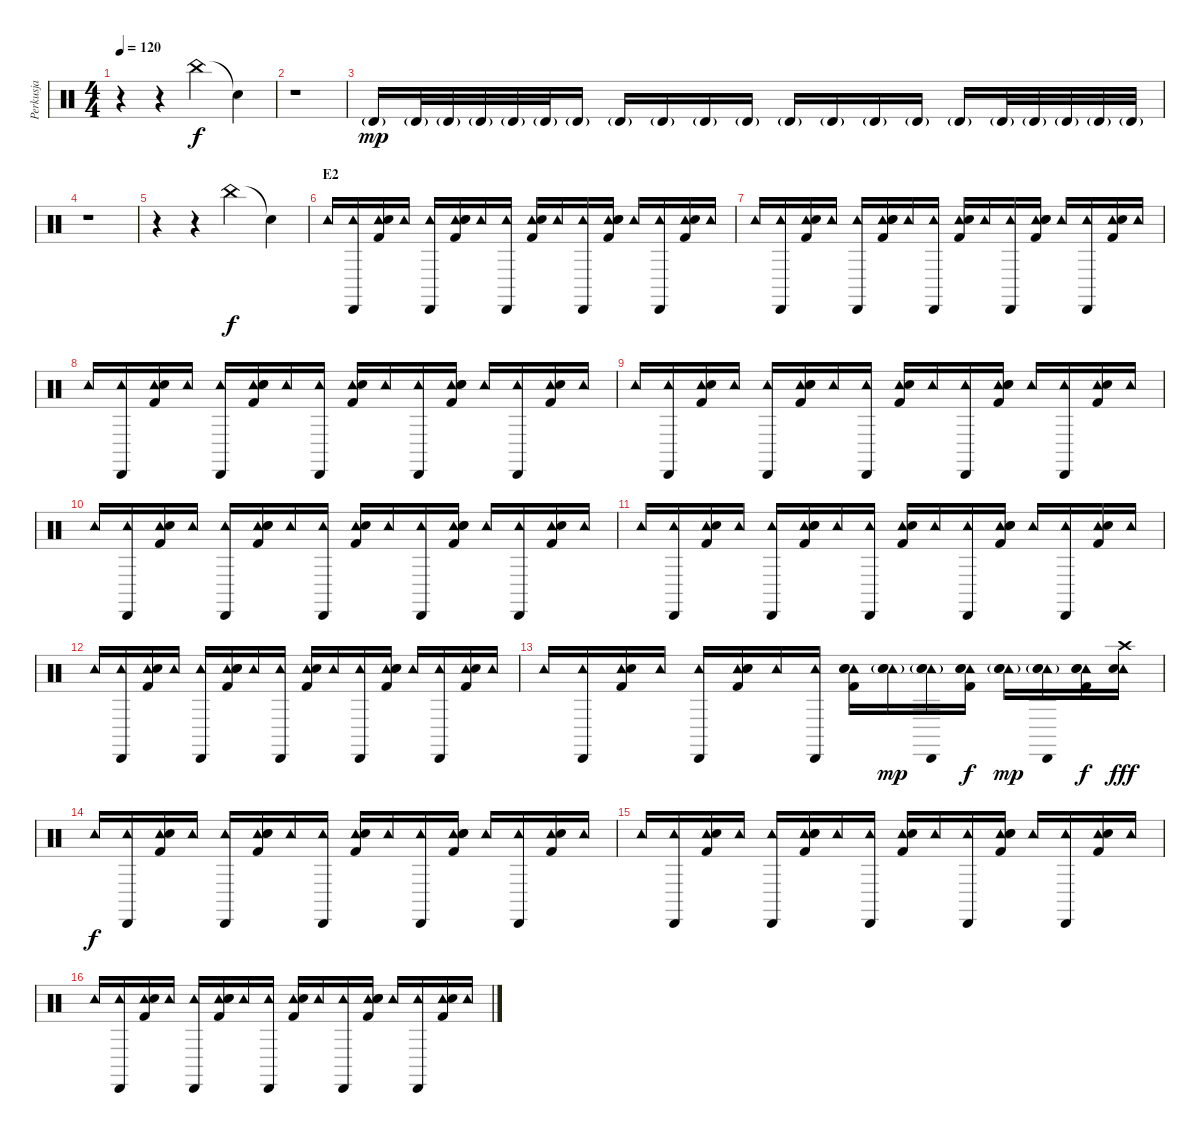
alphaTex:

\track ("Perkusja" "Perkusja") {instrument percussion}
\staff {score}
\articulation defaults
\ts (4 4)
\tempo 120
\clef neutral
\ks c
r.4{dy f} r.4 "China (hit)".4 "Snare (hit)"{t}.4 |
r.1 |
"Timbale high (hit)"{g}.16{dy mp} "Timbale high (hit)"{g}.32 "Timbale high (hit)"{g}.32 "Timbale high (hit)"{g}.32 "Timbale high (hit)"{g}.32 "Timbale high (hit)"{g}.32 "Timbale high (hit)"{g}.16 "Timbale high (hit)"{g}.16 "Timbale high (hit)"{g}.16 "Timbale high (hit)"{g}.16 "Timbale high (hit)"{g}.16 "Timbale high (hit)"{g}.16 "Timbale high (hit)"{g}.16 "Timbale high (hit)"{g}.16 "Timbale high (hit)"{g}.16 "Timbale high (hit)"{g}.16 "Timbale high (hit)"{g}.32 "Timbale high (hit)"{g}.32 "Timbale high (hit)"{g}.32 "Timbale high (hit)"{g}.32 "Timbale high (hit)"{g}.32 |
r.1 |
r.4 r.4 "China (hit)".4{dy f} "Snare (hit)"{t}.4 |
\section ("" "E2")
"Tambourine (hit)".16{volume 7} ("Tambourine (hit)" "Cabasa (hit)").16 ("Tambourine (hit)" "Kick (hit) 2" "Snare (hit) 2").16 "Tambourine (hit)".16 ("Tambourine (hit)" "Cabasa (hit)").16 ("Tambourine (hit)" "Kick (hit) 2" "Electric Snare (hit)" "Snare (hit) 2").16 "Tambourine (hit)".16 ("Tambourine (hit)" "Cabasa (hit)").16 ("Tambourine (hit)" "Kick (hit) 2" "Snare (hit) 2").16 "Tambourine (hit)".16 ("Tambourine (hit)" "Cabasa (hit)").16 ("Tambourine (hit)" "Kick (hit) 2" "Electric Snare (hit)" "Snare (hit) 2").16 "Tambourine (hit)".16 ("Tambourine (hit)" "Cabasa (hit)").16 ("Tambourine (hit)" "Kick (hit) 2" "Snare (hit) 2").16 "Tambourine (hit)".16 |
"Tambourine (hit)".16 ("Tambourine (hit)" "Cabasa (hit)").16 ("Tambourine (hit)" "Kick (hit) 2" "Snare (hit) 2").16 "Tambourine (hit)".16 ("Tambourine (hit)" "Cabasa (hit)").16 ("Tambourine (hit)" "Kick (hit) 2" "Electric Snare (hit)" "Snare (hit) 2").16 "Tambourine (hit)".16 ("Tambourine (hit)" "Cabasa (hit)").16 ("Tambourine (hit)" "Kick (hit) 2" "Snare (hit) 2").16 "Tambourine (hit)".16 ("Tambourine (hit)" "Cabasa (hit)").16 ("Tambourine (hit)" "Kick (hit) 2" "Electric Snare (hit)" "Snare (hit) 2").16 "Tambourine (hit)".16 ("Tambourine (hit)" "Cabasa (hit)").16 ("Tambourine (hit)" "Kick (hit) 2" "Snare (hit) 2").16 "Tambourine (hit)".16 |
"Tambourine (hit)".16 ("Tambourine (hit)" "Cabasa (hit)").16 ("Tambourine (hit)" "Kick (hit) 2" "Snare (hit) 2").16 "Tambourine (hit)".16 ("Tambourine (hit)" "Cabasa (hit)").16 ("Tambourine (hit)" "Kick (hit) 2" "Electric Snare (hit)" "Snare (hit) 2").16 "Tambourine (hit)".16 ("Tambourine (hit)" "Cabasa (hit)").16 ("Tambourine (hit)" "Kick (hit) 2" "Snare (hit) 2").16 "Tambourine (hit)".16 ("Tambourine (hit)" "Cabasa (hit)").16 ("Tambourine (hit)" "Kick (hit) 2" "Electric Snare (hit)" "Snare (hit) 2").16 "Tambourine (hit)".16 ("Tambourine (hit)" "Cabasa (hit)").16 ("Tambourine (hit)" "Kick (hit) 2" "Snare (hit) 2").16 "Tambourine (hit)".16 |
"Tambourine (hit)".16 ("Tambourine (hit)" "Cabasa (hit)").16 ("Tambourine (hit)" "Kick (hit) 2" "Snare (hit) 2").16 "Tambourine (hit)".16 ("Tambourine (hit)" "Cabasa (hit)").16 ("Tambourine (hit)" "Kick (hit) 2" "Electric Snare (hit)" "Snare (hit) 2").16 "Tambourine (hit)".16 ("Tambourine (hit)" "Cabasa (hit)").16 ("Tambourine (hit)" "Kick (hit) 2" "Snare (hit) 2").16 "Tambourine (hit)".16 ("Tambourine (hit)" "Cabasa (hit)").16 ("Tambourine (hit)" "Kick (hit) 2" "Electric Snare (hit)" "Snare (hit) 2").16 "Tambourine (hit)".16 ("Tambourine (hit)" "Cabasa (hit)").16 ("Tambourine (hit)" "Kick (hit) 2" "Snare (hit) 2").16 "Tambourine (hit)".16 |
"Tambourine (hit)".16 ("Tambourine (hit)" "Cabasa (hit)").16 ("Tambourine (hit)" "Kick (hit) 2" "Snare (hit) 2").16 "Tambourine (hit)".16 ("Tambourine (hit)" "Cabasa (hit)").16 ("Tambourine (hit)" "Kick (hit) 2" "Electric Snare (hit)" "Snare (hit) 2").16 "Tambourine (hit)".16 ("Tambourine (hit)" "Cabasa (hit)").16 ("Tambourine (hit)" "Kick (hit) 2" "Snare (hit) 2").16 "Tambourine (hit)".16 ("Tambourine (hit)" "Cabasa (hit)").16 ("Tambourine (hit)" "Kick (hit) 2" "Electric Snare (hit)" "Snare (hit) 2").16 "Tambourine (hit)".16 ("Tambourine (hit)" "Cabasa (hit)").16 ("Tambourine (hit)" "Kick (hit) 2" "Snare (hit) 2").16 "Tambourine (hit)".16 |
"Tambourine (hit)".16 ("Tambourine (hit)" "Cabasa (hit)").16 ("Tambourine (hit)" "Kick (hit) 2" "Snare (hit) 2").16 "Tambourine (hit)".16 ("Tambourine (hit)" "Cabasa (hit)").16 ("Tambourine (hit)" "Kick (hit) 2" "Electric Snare (hit)" "Snare (hit) 2").16 "Tambourine (hit)".16 ("Tambourine (hit)" "Cabasa (hit)").16 ("Tambourine (hit)" "Kick (hit) 2" "Snare (hit) 2").16 "Tambourine (hit)".16 ("Tambourine (hit)" "Cabasa (hit)").16 ("Tambourine (hit)" "Kick (hit) 2" "Electric Snare (hit)" "Snare (hit) 2").16 "Tambourine (hit)".16 ("Tambourine (hit)" "Cabasa (hit)").16 ("Tambourine (hit)" "Kick (hit) 2" "Snare (hit) 2").16 "Tambourine (hit)".16 |
"Tambourine (hit)".16 ("Tambourine (hit)" "Cabasa (hit)").16 ("Tambourine (hit)" "Kick (hit) 2" "Snare (hit) 2").16 "Tambourine (hit)".16 ("Tambourine (hit)" "Cabasa (hit)").16 ("Tambourine (hit)" "Kick (hit) 2" "Electric Snare (hit)" "Snare (hit) 2").16 "Tambourine (hit)".16 ("Tambourine (hit)" "Cabasa (hit)").16 ("Tambourine (hit)" "Kick (hit) 2" "Snare (hit) 2").16 "Tambourine (hit)".16 ("Tambourine (hit)" "Cabasa (hit)").16 ("Tambourine (hit)" "Kick (hit) 2" "Electric Snare (hit)" "Snare (hit) 2").16 "Tambourine (hit)".16 ("Tambourine (hit)" "Cabasa (hit)").16 ("Tambourine (hit)" "Kick (hit) 2" "Snare (hit) 2").16 "Tambourine (hit)".16 |
"Tambourine (hit)".16 ("Tambourine (hit)" "Cabasa (hit)").16 ("Tambourine (hit)" "Kick (hit) 2" "Snare (hit) 2").16 "Tambourine (hit)".16 ("Tambourine (hit)" "Cabasa (hit)").16 ("Tambourine (hit)" "Kick (hit) 2" "Electric Snare (hit)" "Snare (hit) 2").16 "Tambourine (hit)".16 ("Tambourine (hit)" "Cabasa (hit)").16 ("Tambourine (hit)" "Kick (hit) 2" "Snare (hit) 2" "Electric Snare (hit)").16 ("Tambourine (hit)" "Electric Snare (hit)"{g} "Electric Snare (hit)"{g}).16{dy mp} ("Tambourine (hit)" "Electric Snare (hit)"{g} "Electric Snare (hit)"{g} "Cabasa (hit)").16 ("Tambourine (hit)" "Kick (hit) 2" "Electric Snare (hit)" "Snare (hit) 2").16{dy f} ("Tambourine (hit)" "Electric Snare (hit)"{g} "Electric Snare (hit)"{g}).16{dy mp} ("Tambourine (hit)" "Electric Snare (hit)"{g} "Electric Snare (hit)"{g} "Cabasa (hit)").16 ("Tambourine (hit)" "Kick (hit) 2" "Snare (hit) 2" "Electric Snare (hit)").16{dy f} ("Tambourine (hit)" "Electric Snare (hit)" "Crash high (hit)").16{dy fff} |
"Tambourine (hit)".16{dy f} ("Tambourine (hit)" "Cabasa (hit)").16 ("Tambourine (hit)" "Kick (hit) 2" "Snare (hit) 2").16 "Tambourine (hit)".16 ("Tambourine (hit)" "Cabasa (hit)").16 ("Tambourine (hit)" "Kick (hit) 2" "Electric Snare (hit)" "Snare (hit) 2").16 "Tambourine (hit)".16 ("Tambourine (hit)" "Cabasa (hit)").16 ("Tambourine (hit)" "Kick (hit) 2" "Snare (hit) 2").16 "Tambourine (hit)".16 ("Tambourine (hit)" "Cabasa (hit)").16 ("Tambourine (hit)" "Kick (hit) 2" "Electric Snare (hit)" "Snare (hit) 2").16 "Tambourine (hit)".16 ("Tambourine (hit)" "Cabasa (hit)").16 ("Tambourine (hit)" "Kick (hit) 2" "Snare (hit) 2").16 "Tambourine (hit)".16 |
"Tambourine (hit)".16 ("Tambourine (hit)" "Cabasa (hit)").16 ("Tambourine (hit)" "Kick (hit) 2" "Snare (hit) 2").16 "Tambourine (hit)".16 ("Tambourine (hit)" "Cabasa (hit)").16 ("Tambourine (hit)" "Kick (hit) 2" "Electric Snare (hit)" "Snare (hit) 2").16 "Tambourine (hit)".16 ("Tambourine (hit)" "Cabasa (hit)").16 ("Tambourine (hit)" "Kick (hit) 2" "Snare (hit) 2").16 "Tambourine (hit)".16 ("Tambourine (hit)" "Cabasa (hit)").16 ("Tambourine (hit)" "Kick (hit) 2" "Electric Snare (hit)" "Snare (hit) 2").16 "Tambourine (hit)".16 ("Tambourine (hit)" "Cabasa (hit)").16 ("Tambourine (hit)" "Kick (hit) 2" "Snare (hit) 2").16 "Tambourine (hit)".16 |
"Tambourine (hit)".16 ("Tambourine (hit)" "Cabasa (hit)").16 ("Tambourine (hit)" "Kick (hit) 2" "Snare (hit) 2").16 "Tambourine (hit)".16 ("Tambourine (hit)" "Cabasa (hit)").16 ("Tambourine (hit)" "Kick (hit) 2" "Electric Snare (hit)" "Snare (hit) 2").16 "Tambourine (hit)".16 ("Tambourine (hit)" "Cabasa (hit)").16 ("Tambourine (hit)" "Kick (hit) 2" "Snare (hit) 2").16 "Tambourine (hit)".16 ("Tambourine (hit)" "Cabasa (hit)").16 ("Tambourine (hit)" "Kick (hit) 2" "Electric Snare (hit)" "Snare (hit) 2").16 "Tambourine (hit)".16 ("Tambourine (hit)" "Cabasa (hit)").16 ("Tambourine (hit)" "Kick (hit) 2" "Snare (hit) 2").16 "Tambourine (hit)".16
